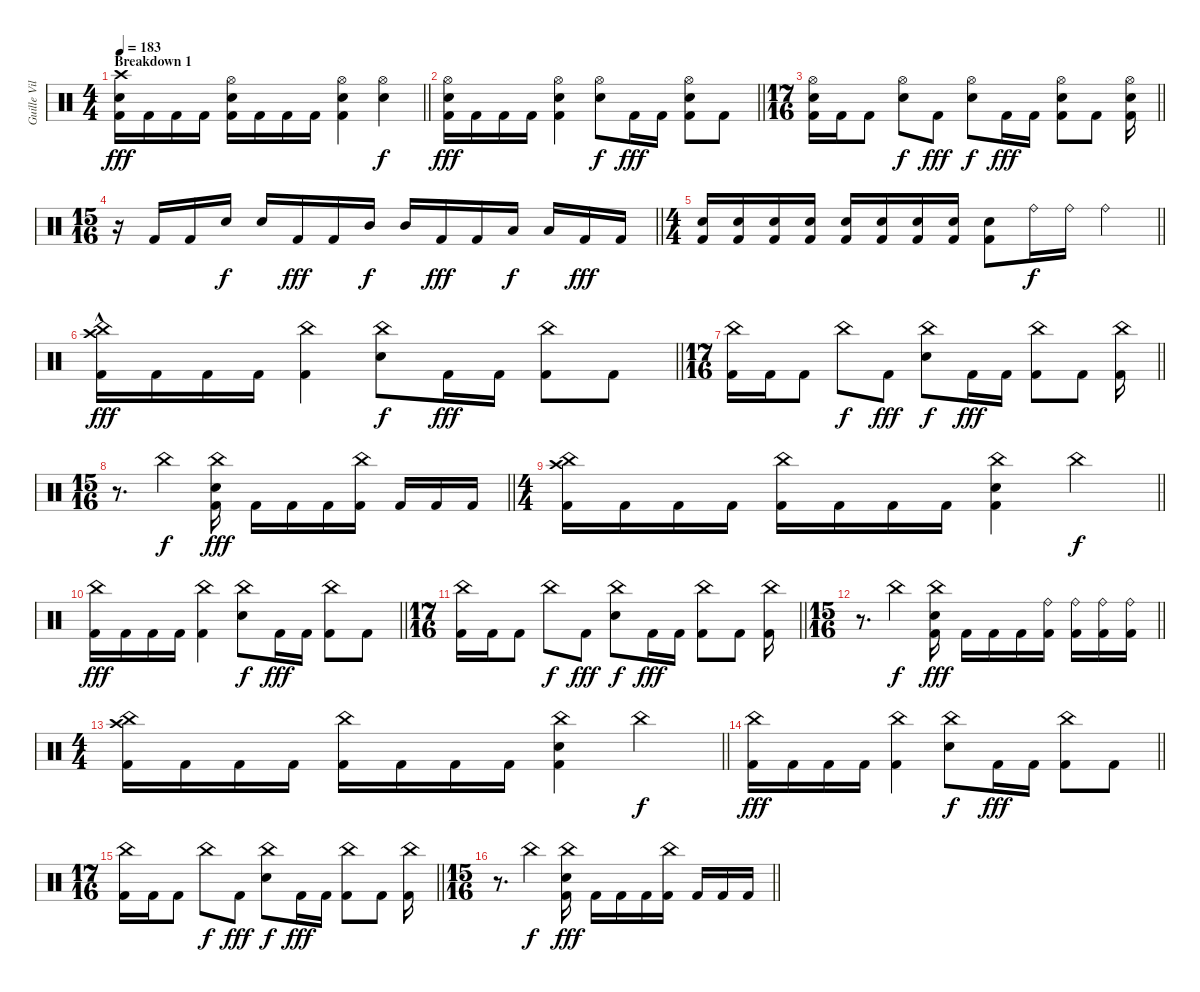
\track ("Guille Vila" "Guille Vil") {instrument percussion}
\staff {score}
\articulation defaults
\ts (4 4)
\section ("" "Breakdown 1")
\tempo 183
\clef neutral
\barLineRight lightlight
\ks c
("Crash high (hit)" "Snare (hit) 2" "Kick (hit) 2").16{dy fff} "Kick (hit) 2".16 "Kick (hit) 2".16 "Kick (hit) 2".16 ("Hi-Hat (open)" "Snare (hit) 2" "Kick (hit) 2").16 "Kick (hit) 2".16 "Kick (hit) 2".16 "Kick (hit) 2".16 ("Hi-Hat (open)" "Snare (hit) 2" "Kick (hit) 2").4 ("Hi-Hat (open)" "Snare (hit) 2").4{dy f} |
\barLineRight lightlight
("Hi-Hat (open)" "Snare (hit) 2" "Kick (hit) 2").16{dy fff} "Kick (hit) 2".16 "Kick (hit) 2".16 "Kick (hit) 2".16 ("Hi-Hat (open)" "Snare (hit) 2" "Kick (hit) 2").4 ("Hi-Hat (open)" "Snare (hit) 2").8{dy f} "Kick (hit) 2".16{dy fff} "Kick (hit) 2".16 ("Hi-Hat (open)" "Snare (hit) 2" "Kick (hit) 2").8 "Kick (hit) 2".8 |
\ts (17 16)
\barLineRight lightlight
("Hi-Hat (open)" "Snare (hit) 2" "Kick (hit) 2").16 "Kick (hit) 2".16 "Kick (hit) 2".8 ("Hi-Hat (open)" "Snare (hit) 2").8{dy f} "Kick (hit) 2".8{dy fff} ("Hi-Hat (open)" "Snare (hit) 2").8{dy f} "Kick (hit) 2".16{dy fff} "Kick (hit) 2".16 ("Hi-Hat (open)" "Snare (hit) 2" "Kick (hit) 2").8 "Kick (hit) 2".8 ("Hi-Hat (open)" "Snare (hit) 2" "Kick (hit) 2").16 |
\ts (15 16)
\barLineRight lightlight
r.16 "Kick (hit) 2".16 "Kick (hit) 2".16 "Snare (hit) 2".16{dy f} "Snare (hit) 2".16 "Kick (hit) 2".16{dy fff} "Kick (hit) 2".16 "Mid Tom (hit)".16{dy f} "Mid Tom (hit)".16 "Kick (hit) 2".16{dy fff} "Kick (hit) 2".16 "Low Floor Tom (hit)".16{dy f} "Low Floor Tom (hit)".16 "Kick (hit) 2".16{dy fff} "Kick (hit) 2".16 |
\ts (4 4)
\barLineRight lightlight
("Snare (hit) 2" "Kick (hit) 2").16 ("Snare (hit) 2" "Kick (hit) 2").16 ("Snare (hit) 2" "Kick (hit) 2").16 ("Snare (hit) 2" "Kick (hit) 2").16 ("Snare (hit) 2" "Kick (hit) 2").16 ("Snare (hit) 2" "Kick (hit) 2").16 ("Snare (hit) 2" "Kick (hit) 2").16 ("Snare (hit) 2" "Kick (hit) 2").16 ("Snare (hit) 2" "Kick (hit) 2").8 "Ride (bell)".16{dy f} "Ride (bell)".16 "Ride (bell)".4 |
\barLineRight lightlight
("Crash high (hit)" "China (hit)" "Kick (hit) 2"{hac}).16{dy fff} "Kick (hit) 2".16 "Kick (hit) 2".16 "Kick (hit) 2".16 ("China (hit)" "Kick (hit) 2").4 ("China (hit)" "Snare (hit) 2").8{dy f} "Kick (hit) 2".16{dy fff} "Kick (hit) 2".16 ("China (hit)" "Kick (hit) 2").8 "Kick (hit) 2".8 |
\ts (17 16)
\barLineRight lightlight
("China (hit)" "Kick (hit) 2").16 "Kick (hit) 2".16 "Kick (hit) 2".8 "China (hit)".8{dy f} "Kick (hit) 2".8{dy fff} ("China (hit)" "Snare (hit) 2").8{dy f} "Kick (hit) 2".16{dy fff} "Kick (hit) 2".16 ("China (hit)" "Kick (hit) 2").8 "Kick (hit) 2".8 ("China (hit)" "Kick (hit) 2").16 |
\ts (15 16)
\barLineRight lightlight
r.8{d} "China (hit)".4{dy f} ("China (hit)" "Snare (hit) 2" "Kick (hit) 2").16{dy fff} "Kick (hit) 2".16 "Kick (hit) 2".16 "Kick (hit) 2".16 ("China (hit)" "Kick (hit) 2").16 "Kick (hit) 2".16 "Kick (hit) 2".16 "Kick (hit) 2".16 |
\ts (4 4)
\barLineRight lightlight
("China (hit)" "Crash high (hit)" "Kick (hit) 2").16 "Kick (hit) 2".16 "Kick (hit) 2".16 "Kick (hit) 2".16 ("China (hit)" "Kick (hit) 2").16 "Kick (hit) 2".16 "Kick (hit) 2".16 "Kick (hit) 2".16 ("China (hit)" "Snare (hit) 2" "Kick (hit) 2").4 "China (hit)".4{dy f} |
\barLineRight lightlight
("China (hit)" "Kick (hit) 2").16{dy fff} "Kick (hit) 2".16 "Kick (hit) 2".16 "Kick (hit) 2".16 ("China (hit)" "Kick (hit) 2").4 ("China (hit)" "Snare (hit) 2").8{dy f} "Kick (hit) 2".16{dy fff} "Kick (hit) 2".16 ("China (hit)" "Kick (hit) 2").8 "Kick (hit) 2".8 |
\ts (17 16)
\barLineRight lightlight
("China (hit)" "Kick (hit) 2").16 "Kick (hit) 2".16 "Kick (hit) 2".8 "China (hit)".8{dy f} "Kick (hit) 2".8{dy fff} ("China (hit)" "Snare (hit) 2").8{dy f} "Kick (hit) 2".16{dy fff} "Kick (hit) 2".16 ("China (hit)" "Kick (hit) 2").8 "Kick (hit) 2".8 ("China (hit)" "Kick (hit) 2").16 |
\ts (15 16)
\barLineRight lightlight
r.8{d} "China (hit)".4{dy f} ("China (hit)" "Snare (hit) 2" "Kick (hit) 2").16{dy fff} "Kick (hit) 2".16 "Kick (hit) 2".16 "Kick (hit) 2".16 ("Ride (bell)" "Kick (hit) 2").16 ("Ride (bell)" "Kick (hit) 2").16 ("Ride (bell)" "Kick (hit) 2").16 ("Ride (bell)" "Kick (hit) 2").16 |
\ts (4 4)
\barLineRight lightlight
("China (hit)" "Crash high (hit)" "Kick (hit) 2").16 "Kick (hit) 2".16 "Kick (hit) 2".16 "Kick (hit) 2".16 ("China (hit)" "Kick (hit) 2").16 "Kick (hit) 2".16 "Kick (hit) 2".16 "Kick (hit) 2".16 ("China (hit)" "Snare (hit) 2" "Kick (hit) 2").4 "China (hit)".4{dy f} |
\barLineRight lightlight
("China (hit)" "Kick (hit) 2").16{dy fff} "Kick (hit) 2".16 "Kick (hit) 2".16 "Kick (hit) 2".16 ("China (hit)" "Kick (hit) 2").4 ("China (hit)" "Snare (hit) 2").8{dy f} "Kick (hit) 2".16{dy fff} "Kick (hit) 2".16 ("China (hit)" "Kick (hit) 2").8 "Kick (hit) 2".8 |
\ts (17 16)
\barLineRight lightlight
("China (hit)" "Kick (hit) 2").16 "Kick (hit) 2".16 "Kick (hit) 2".8 "China (hit)".8{dy f} "Kick (hit) 2".8{dy fff} ("China (hit)" "Snare (hit) 2").8{dy f} "Kick (hit) 2".16{dy fff} "Kick (hit) 2".16 ("China (hit)" "Kick (hit) 2").8 "Kick (hit) 2".8 ("China (hit)" "Kick (hit) 2").16 |
\ts (15 16)
\barLineRight lightlight
r.8{d} "China (hit)".4{dy f} ("China (hit)" "Snare (hit) 2" "Kick (hit) 2").16{dy fff} "Kick (hit) 2".16 "Kick (hit) 2".16 "Kick (hit) 2".16 ("China (hit)" "Kick (hit) 2").16 "Kick (hit) 2".16 "Kick (hit) 2".16 "Kick (hit) 2".16
